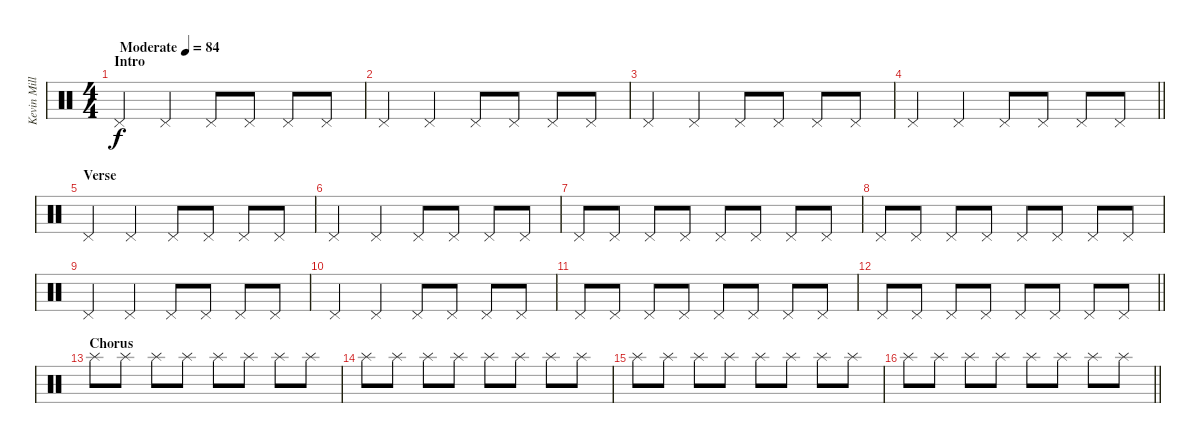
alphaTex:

\track ("Kevin Miller (Drums)" "Kevin Mill") {instrument percussion}
\staff {score}
\articulation defaults
\ts (4 4)
\section ("" "Intro")
\tempo (84 "Moderate")
\clef neutral
\ks c "Pedal Hi-Hat (hit)".4{dy f} "Pedal Hi-Hat (hit)".4 "Pedal Hi-Hat (hit)".8 "Pedal Hi-Hat (hit)".8 "Pedal Hi-Hat (hit)".8 "Pedal Hi-Hat (hit)".8
|
"Pedal Hi-Hat (hit)".4 "Pedal Hi-Hat (hit)".4 "Pedal Hi-Hat (hit)".8 "Pedal Hi-Hat (hit)".8 "Pedal Hi-Hat (hit)".8 "Pedal Hi-Hat (hit)".8 |
"Pedal Hi-Hat (hit)".4 "Pedal Hi-Hat (hit)".4 "Pedal Hi-Hat (hit)".8 "Pedal Hi-Hat (hit)".8 "Pedal Hi-Hat (hit)".8 "Pedal Hi-Hat (hit)".8 |
\barLineRight lightlight "Pedal Hi-Hat (hit)".4 "Pedal Hi-Hat (hit)".4 "Pedal Hi-Hat (hit)".8 "Pedal Hi-Hat (hit)".8 "Pedal Hi-Hat (hit)".8 "Pedal Hi-Hat (hit)".8
|
\section ("" "Verse")
"Pedal Hi-Hat (hit)".4 "Pedal Hi-Hat (hit)".4 "Pedal Hi-Hat (hit)".8 "Pedal Hi-Hat (hit)".8 "Pedal Hi-Hat (hit)".8 "Pedal Hi-Hat (hit)".8 |
"Pedal Hi-Hat (hit)".4 "Pedal Hi-Hat (hit)".4 "Pedal Hi-Hat (hit)".8 "Pedal Hi-Hat (hit)".8 "Pedal Hi-Hat (hit)".8 "Pedal Hi-Hat (hit)".8 |
"Pedal Hi-Hat (hit)".8 "Pedal Hi-Hat (hit)".8 "Pedal Hi-Hat (hit)".8 "Pedal Hi-Hat (hit)".8 "Pedal Hi-Hat (hit)".8 "Pedal Hi-Hat (hit)".8 "Pedal Hi-Hat (hit)".8 "Pedal Hi-Hat (hit)".8 |
"Pedal Hi-Hat (hit)".8 "Pedal Hi-Hat (hit)".8 "Pedal Hi-Hat (hit)".8 "Pedal Hi-Hat (hit)".8 "Pedal Hi-Hat (hit)".8 "Pedal Hi-Hat (hit)".8 "Pedal Hi-Hat (hit)".8 "Pedal Hi-Hat (hit)".8 |
"Pedal Hi-Hat (hit)".4 "Pedal Hi-Hat (hit)".4 "Pedal Hi-Hat (hit)".8 "Pedal Hi-Hat (hit)".8 "Pedal Hi-Hat (hit)".8 "Pedal Hi-Hat (hit)".8 |
"Pedal Hi-Hat (hit)".4 "Pedal Hi-Hat (hit)".4 "Pedal Hi-Hat (hit)".8 "Pedal Hi-Hat (hit)".8 "Pedal Hi-Hat (hit)".8 "Pedal Hi-Hat (hit)".8 |
"Pedal Hi-Hat (hit)".8 "Pedal Hi-Hat (hit)".8 "Pedal Hi-Hat (hit)".8 "Pedal Hi-Hat (hit)".8 "Pedal Hi-Hat (hit)".8 "Pedal Hi-Hat (hit)".8 "Pedal Hi-Hat (hit)".8 "Pedal Hi-Hat (hit)".8 |
\barLineRight lightlight "Pedal Hi-Hat (hit)".8 "Pedal Hi-Hat (hit)".8 "Pedal Hi-Hat (hit)".8 "Pedal Hi-Hat (hit)".8 "Pedal Hi-Hat (hit)".8 "Pedal Hi-Hat (hit)".8 "Pedal Hi-Hat (hit)".8 "Pedal Hi-Hat (hit)".8
|
\section ("" "Chorus")
"Splash (hit)".8 "Splash (hit)".8 "Splash (hit)".8 "Splash (hit)".8 "Splash (hit)".8 "Splash (hit)".8 "Splash (hit)".8 "Splash (hit)".8 |
"Splash (hit)".8 "Splash (hit)".8 "Splash (hit)".8 "Splash (hit)".8 "Splash (hit)".8 "Splash (hit)".8 "Splash (hit)".8 "Splash (hit)".8 |
"Splash (hit)".8 "Splash (hit)".8 "Splash (hit)".8 "Splash (hit)".8 "Splash (hit)".8 "Splash (hit)".8 "Splash (hit)".8 "Splash (hit)".8 |
\barLineRight lightlight "Splash (hit)".8 "Splash (hit)".8 "Splash (hit)".8 "Splash (hit)".8 "Splash (hit)".8 "Splash (hit)".8 "Splash (hit)".8 "Splash (hit)".8
